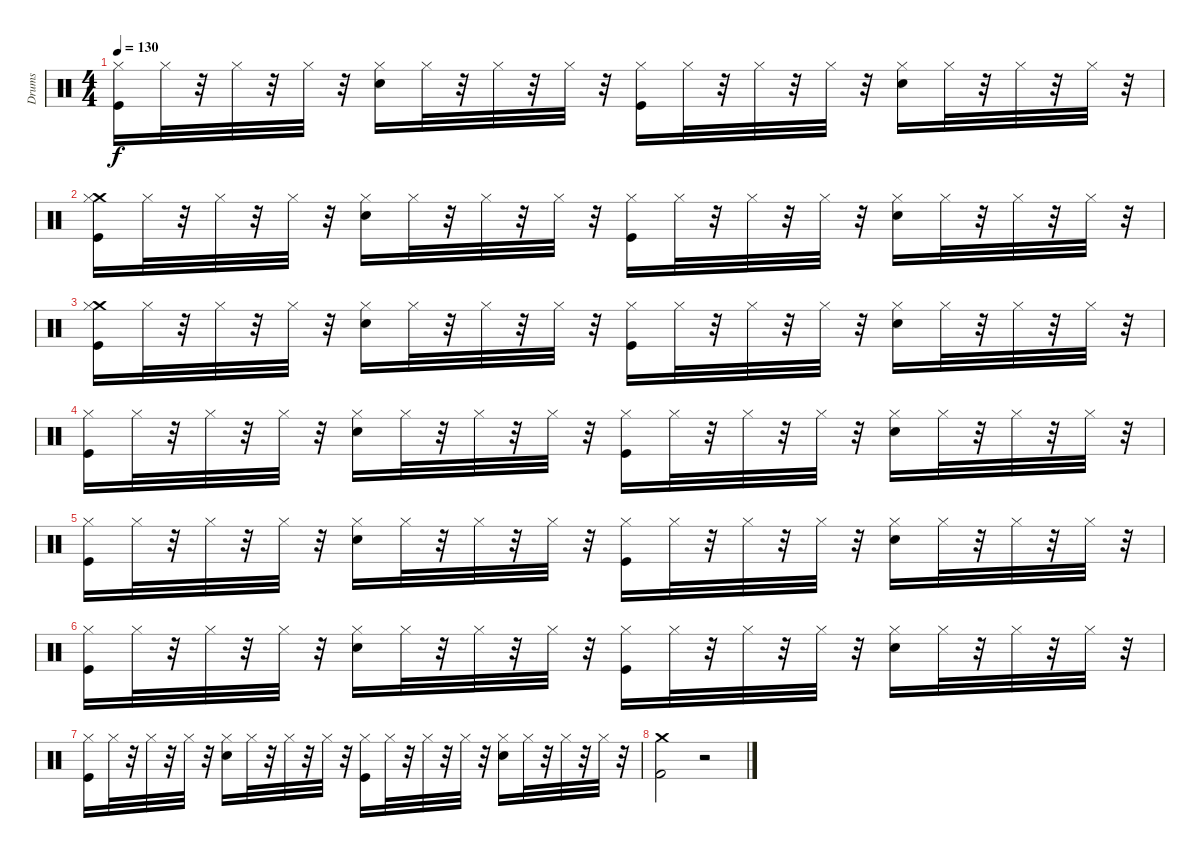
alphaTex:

\track ("Drums" "Drums") {instrument percussion}
\staff {score}
\articulation defaults
\ts (4 4)
\tempo 130
\clef neutral
\ks c
("Hi-Hat (closed)" "Kick (hit)").16{dy f} "Hi-Hat (closed)".32 r.32 "Hi-Hat (closed)".32 r.32 "Hi-Hat (closed)".32 r.32 ("Hi-Hat (closed)" "Snare (hit) 2").16 "Hi-Hat (closed)".32 r.32 "Hi-Hat (closed)".32 r.32 "Hi-Hat (closed)".32 r.32 ("Hi-Hat (closed)" "Kick (hit)").16 "Hi-Hat (closed)".32 r.32 "Hi-Hat (closed)".32 r.32 "Hi-Hat (closed)".32 r.32 ("Hi-Hat (closed)" "Snare (hit) 2").16 "Hi-Hat (closed)".32 r.32 "Hi-Hat (closed)".32 r.32 "Hi-Hat (closed)".32 r.32 |
("Crash medium (hit)" "Hi-Hat (closed)" "Kick (hit)").16 "Hi-Hat (closed)".32 r.32 "Hi-Hat (closed)".32 r.32 "Hi-Hat (closed)".32 r.32 ("Hi-Hat (closed)" "Snare (hit) 2").16 "Hi-Hat (closed)".32 r.32 "Hi-Hat (closed)".32 r.32 "Hi-Hat (closed)".32 r.32 ("Hi-Hat (closed)" "Kick (hit)").16 "Hi-Hat (closed)".32 r.32 "Hi-Hat (closed)".32 r.32 "Hi-Hat (closed)".32 r.32 ("Hi-Hat (closed)" "Snare (hit) 2").16 "Hi-Hat (closed)".32 r.32 "Hi-Hat (closed)".32 r.32 "Hi-Hat (closed)".32 r.32 |
("Crash medium (hit)" "Hi-Hat (closed)" "Kick (hit)").16 "Hi-Hat (closed)".32 r.32 "Hi-Hat (closed)".32 r.32 "Hi-Hat (closed)".32 r.32 ("Hi-Hat (closed)" "Snare (hit) 2").16 "Hi-Hat (closed)".32 r.32 "Hi-Hat (closed)".32 r.32 "Hi-Hat (closed)".32 r.32 ("Hi-Hat (closed)" "Kick (hit)").16 "Hi-Hat (closed)".32 r.32 "Hi-Hat (closed)".32 r.32 "Hi-Hat (closed)".32 r.32 ("Hi-Hat (closed)" "Snare (hit) 2").16 "Hi-Hat (closed)".32 r.32 "Hi-Hat (closed)".32 r.32 "Hi-Hat (closed)".32 r.32 |
("Hi-Hat (closed)" "Kick (hit)").16 "Hi-Hat (closed)".32 r.32 "Hi-Hat (closed)".32 r.32 "Hi-Hat (closed)".32 r.32 ("Hi-Hat (closed)" "Snare (hit) 2").16 "Hi-Hat (closed)".32 r.32 "Hi-Hat (closed)".32 r.32 "Hi-Hat (closed)".32 r.32 ("Hi-Hat (closed)" "Kick (hit)").16 "Hi-Hat (closed)".32 r.32 "Hi-Hat (closed)".32 r.32 "Hi-Hat (closed)".32 r.32 ("Hi-Hat (closed)" "Snare (hit) 2").16 "Hi-Hat (closed)".32 r.32 "Hi-Hat (closed)".32 r.32 "Hi-Hat (closed)".32 r.32 |
("Hi-Hat (closed)" "Kick (hit)").16 "Hi-Hat (closed)".32 r.32 "Hi-Hat (closed)".32 r.32 "Hi-Hat (closed)".32 r.32 ("Hi-Hat (closed)" "Snare (hit) 2").16 "Hi-Hat (closed)".32 r.32 "Hi-Hat (closed)".32 r.32 "Hi-Hat (closed)".32 r.32 ("Hi-Hat (closed)" "Kick (hit)").16 "Hi-Hat (closed)".32 r.32 "Hi-Hat (closed)".32 r.32 "Hi-Hat (closed)".32 r.32 ("Hi-Hat (closed)" "Snare (hit) 2").16 "Hi-Hat (closed)".32 r.32 "Hi-Hat (closed)".32 r.32 "Hi-Hat (closed)".32 r.32 |
("Hi-Hat (closed)" "Kick (hit)").16 "Hi-Hat (closed)".32 r.32 "Hi-Hat (closed)".32 r.32 "Hi-Hat (closed)".32 r.32 ("Hi-Hat (closed)" "Snare (hit) 2").16 "Hi-Hat (closed)".32 r.32 "Hi-Hat (closed)".32 r.32 "Hi-Hat (closed)".32 r.32 ("Hi-Hat (closed)" "Kick (hit)").16 "Hi-Hat (closed)".32 r.32 "Hi-Hat (closed)".32 r.32 "Hi-Hat (closed)".32 r.32 ("Hi-Hat (closed)" "Snare (hit) 2").16 "Hi-Hat (closed)".32 r.32 "Hi-Hat (closed)".32 r.32 "Hi-Hat (closed)".32 r.32 |
("Hi-Hat (closed)" "Kick (hit)").16 "Hi-Hat (closed)".32 r.32 "Hi-Hat (closed)".32 r.32 "Hi-Hat (closed)".32 r.32 ("Hi-Hat (closed)" "Snare (hit) 2").16 "Hi-Hat (closed)".32 r.32 "Hi-Hat (closed)".32 r.32 "Hi-Hat (closed)".32 r.32 ("Hi-Hat (closed)" "Kick (hit)").16 "Hi-Hat (closed)".32 r.32 "Hi-Hat (closed)".32 r.32 "Hi-Hat (closed)".32 r.32 ("Hi-Hat (closed)" "Snare (hit) 2").16 "Hi-Hat (closed)".32 r.32 "Hi-Hat (closed)".32 r.32 "Hi-Hat (closed)".32 r.32 |
("Kick (hit) 2" "Crash medium (hit)").2 r.2
